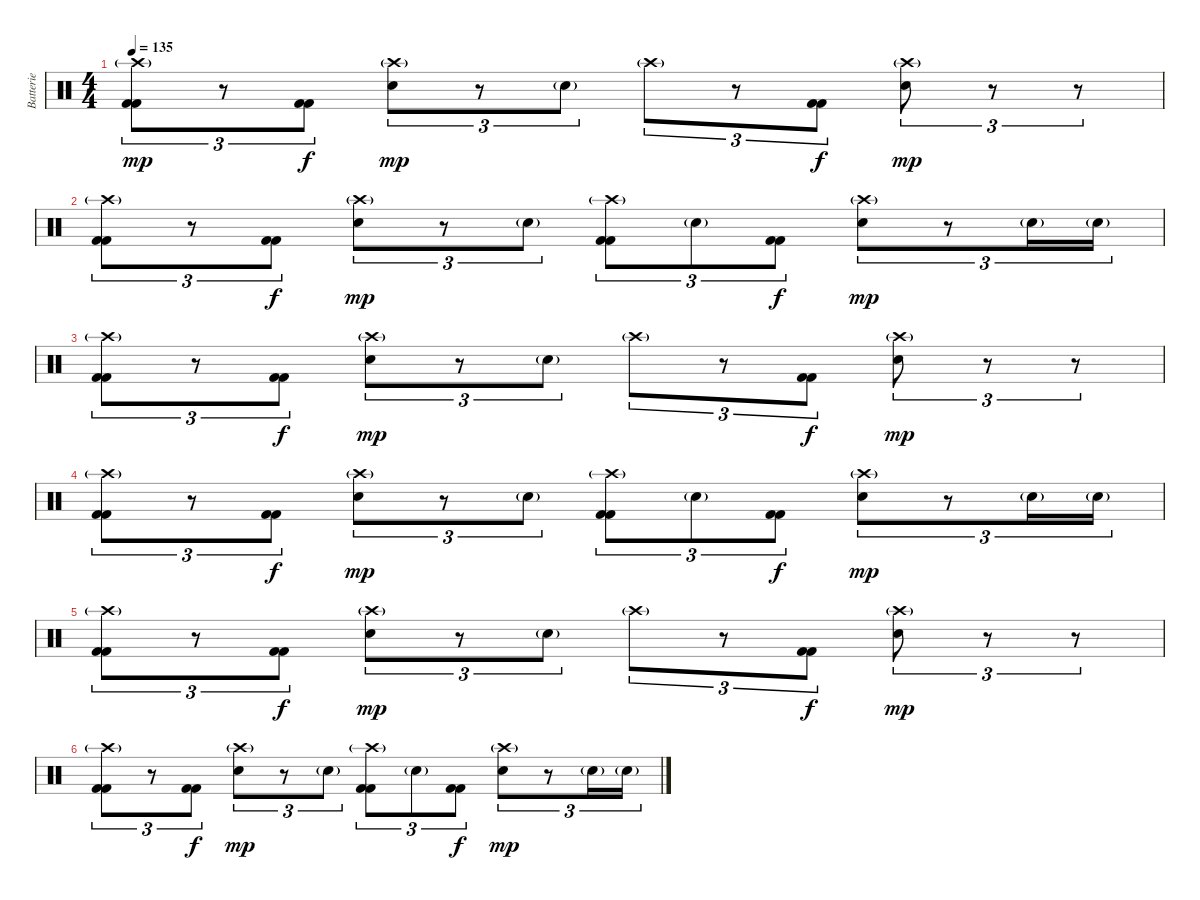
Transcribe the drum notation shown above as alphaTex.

\track ("Batterie" "Batterie") {instrument percussion}
\staff {score}
\articulation defaults
\ts (4 4)
\tempo 135
\clef neutral
\ks c
("Crash high (hit)"{g} "Kick (hit) 2" "Kick (hit) 2").8{tu (3 2) dy mp} r.8{tu (3 2)} ("Kick (hit) 2" "Kick (hit) 2").8{tu (3 2) dy f} ("Crash high (hit)"{g} "Electric Snare (hit)").8{tu (3 2) dy mp} r.8{tu (3 2)} "Electric Snare (hit)"{g}.8{tu (3 2)} "Crash high (hit)"{g}.8{tu (3 2)} r.8{tu (3 2)} ("Kick (hit) 2" "Kick (hit) 2").8{tu (3 2) dy f} ("Crash high (hit)"{g} "Electric Snare (hit)").8{tu (3 2) dy mp} r.8{tu (3 2)} r.8{tu (3 2)} |
("Crash high (hit)"{g} "Kick (hit) 2" "Kick (hit) 2").8{tu (3 2)} r.8{tu (3 2)} ("Kick (hit) 2" "Kick (hit) 2").8{tu (3 2) dy f} ("Crash high (hit)"{g} "Electric Snare (hit)").8{tu (3 2) dy mp} r.8{tu (3 2)} "Electric Snare (hit)"{g}.8{tu (3 2)} ("Crash high (hit)"{g} "Kick (hit) 2" "Kick (hit) 2").8{tu (3 2)} "Electric Snare (hit)"{g}.8{tu (3 2)} ("Kick (hit) 2" "Kick (hit) 2").8{tu (3 2) dy f} ("Crash high (hit)"{g} "Electric Snare (hit)").8{tu (3 2) dy mp} r.8{tu (3 2)} "Electric Snare (hit)"{g}.16{tu (3 2)} "Electric Snare (hit)"{g}.16{tu (3 2)} |
("Crash high (hit)"{g} "Kick (hit) 2" "Kick (hit) 2").8{tu (3 2)} r.8{tu (3 2)} ("Kick (hit) 2" "Kick (hit) 2").8{tu (3 2) dy f} ("Crash high (hit)"{g} "Electric Snare (hit)").8{tu (3 2) dy mp} r.8{tu (3 2)} "Electric Snare (hit)"{g}.8{tu (3 2)} "Crash high (hit)"{g}.8{tu (3 2)} r.8{tu (3 2)} ("Kick (hit) 2" "Kick (hit) 2").8{tu (3 2) dy f} ("Crash high (hit)"{g} "Electric Snare (hit)").8{tu (3 2) dy mp} r.8{tu (3 2)} r.8{tu (3 2)} |
("Crash high (hit)"{g} "Kick (hit) 2" "Kick (hit) 2").8{tu (3 2)} r.8{tu (3 2)} ("Kick (hit) 2" "Kick (hit) 2").8{tu (3 2) dy f} ("Crash high (hit)"{g} "Electric Snare (hit)").8{tu (3 2) dy mp} r.8{tu (3 2)} "Electric Snare (hit)"{g}.8{tu (3 2)} ("Crash high (hit)"{g} "Kick (hit) 2" "Kick (hit) 2").8{tu (3 2)} "Electric Snare (hit)"{g}.8{tu (3 2)} ("Kick (hit) 2" "Kick (hit) 2").8{tu (3 2) dy f} ("Crash high (hit)"{g} "Electric Snare (hit)").8{tu (3 2) dy mp} r.8{tu (3 2)} "Electric Snare (hit)"{g}.16{tu (3 2)} "Electric Snare (hit)"{g}.16{tu (3 2)} |
("Crash high (hit)"{g} "Kick (hit) 2" "Kick (hit) 2").8{tu (3 2)} r.8{tu (3 2)} ("Kick (hit) 2" "Kick (hit) 2").8{tu (3 2) dy f} ("Crash high (hit)"{g} "Electric Snare (hit)").8{tu (3 2) dy mp} r.8{tu (3 2)} "Electric Snare (hit)"{g}.8{tu (3 2)} "Crash high (hit)"{g}.8{tu (3 2)} r.8{tu (3 2)} ("Kick (hit) 2" "Kick (hit) 2").8{tu (3 2) dy f} ("Crash high (hit)"{g} "Electric Snare (hit)").8{tu (3 2) dy mp} r.8{tu (3 2)} r.8{tu (3 2)} |
("Crash high (hit)"{g} "Kick (hit) 2" "Kick (hit) 2").8{tu (3 2)} r.8{tu (3 2)} ("Kick (hit) 2" "Kick (hit) 2").8{tu (3 2) dy f} ("Crash high (hit)"{g} "Electric Snare (hit)").8{tu (3 2) dy mp} r.8{tu (3 2)} "Electric Snare (hit)"{g}.8{tu (3 2)} ("Crash high (hit)"{g} "Kick (hit) 2" "Kick (hit) 2").8{tu (3 2)} "Electric Snare (hit)"{g}.8{tu (3 2)} ("Kick (hit) 2" "Kick (hit) 2").8{tu (3 2) dy f} ("Crash high (hit)"{g} "Electric Snare (hit)").8{tu (3 2) dy mp} r.8{tu (3 2)} "Electric Snare (hit)"{g}.16{tu (3 2)} "Electric Snare (hit)"{g}.16{tu (3 2)}
